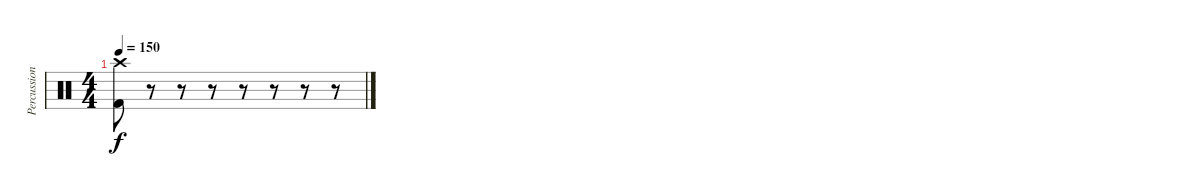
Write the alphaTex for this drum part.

\track ("Percussion" "Percussion") {instrument percussion}
\staff {score}
\articulation defaults
\ts (4 4)
\tempo 150
\clef neutral
\ks c
("Crash high (hit)" "Kick (hit) 2").8{dy f} r.8 r.8 r.8 r.8 r.8 r.8 r.8
